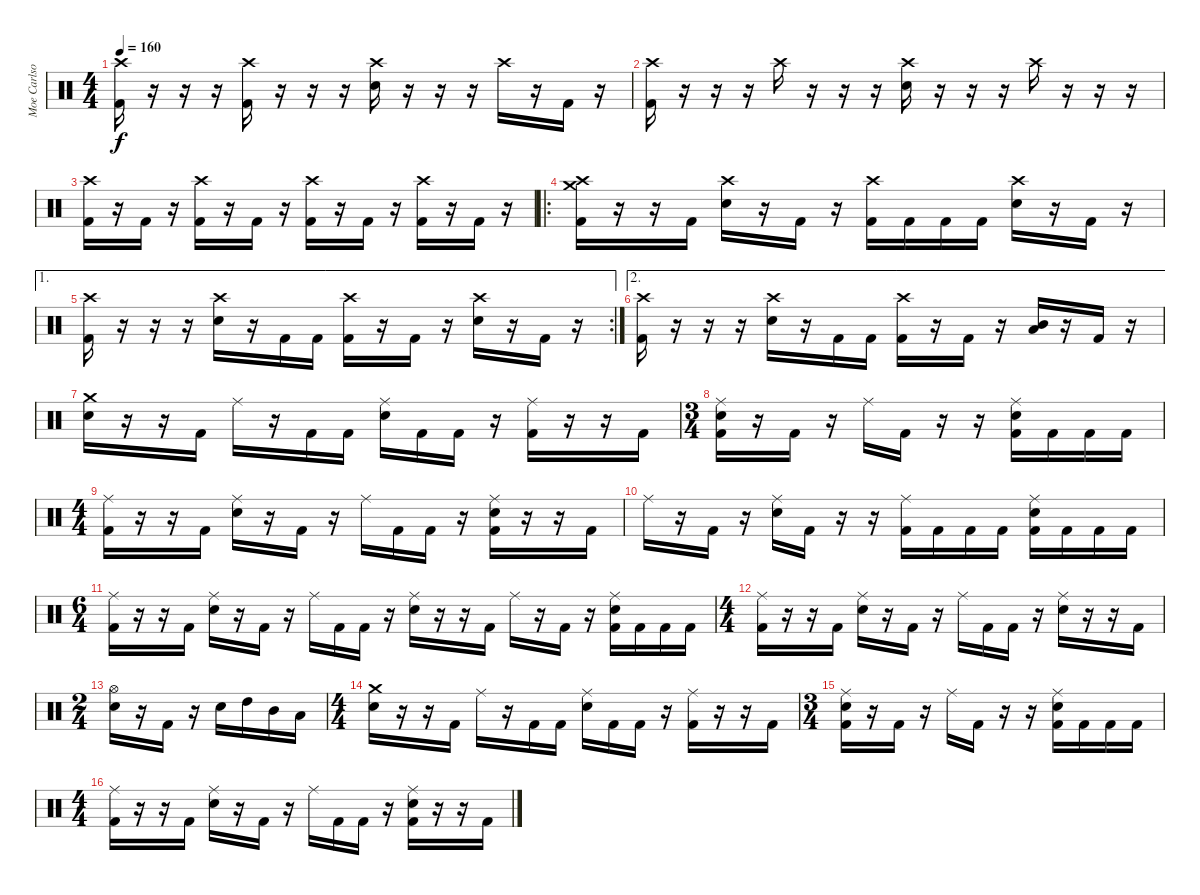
\track ("Moe Carlson" "Moe Carlso") {instrument percussion}
\staff {score}
\articulation defaults
\ts (4 4)
\tempo 160
\clef neutral
\ks c
("Crash high (hit)" "Kick (hit) 2").16{dy f} r.16 r.16 r.16 ("Crash high (hit)" "Kick (hit) 2").16 r.16 r.16 r.16 ("Crash high (hit)" "Electric Snare (hit)").16 r.16 r.16 r.16 "Crash high (hit)".16 r.16 "Kick (hit) 2".16 r.16 |
("Crash high (hit)" "Kick (hit) 2").16 r.16 r.16 r.16 "Crash high (hit)".16 r.16 r.16 r.16 ("Crash high (hit)" "Electric Snare (hit)").16 r.16 r.16 r.16 "Crash high (hit)".16 r.16 r.16 r.16 |
("Crash high (hit)" "Kick (hit) 2").16 r.16 "Kick (hit) 2".16 r.16 ("Crash high (hit)" "Kick (hit) 2").16 r.16 "Kick (hit) 2".16 r.16 ("Crash high (hit)" "Kick (hit) 2").16 r.16 "Kick (hit) 2".16 r.16 ("Crash high (hit)" "Kick (hit) 2").16 r.16 "Kick (hit) 2".16 r.16 |
\ro
("Crash high (hit)" "Crash medium (hit)" "Kick (hit) 2").16 r.16 r.16 "Kick (hit) 2".16 ("Crash high (hit)" "Electric Snare (hit)").16 r.16 "Kick (hit) 2".16 r.16 ("Crash high (hit)" "Kick (hit) 2").16 "Kick (hit) 2".16 "Kick (hit) 2".16 "Kick (hit) 2".16 ("Crash high (hit)" "Electric Snare (hit)").16 r.16 "Kick (hit) 2".16 r.16 |
\ae 1
\rc 2
("Crash high (hit)" "Kick (hit) 2").16 r.16 r.16 r.16 ("Crash high (hit)" "Electric Snare (hit)").16 r.16 "Kick (hit) 2".16 "Kick (hit) 2".16 ("Crash high (hit)" "Kick (hit) 2").16 r.16 "Kick (hit) 2".16 r.16 ("Crash high (hit)" "Electric Snare (hit)").16 r.16 "Kick (hit) 2".16 r.16 |
\ae 2
("Crash high (hit)" "Kick (hit) 2").16 r.16 r.16 r.16 ("Crash high (hit)" "Electric Snare (hit)").16 r.16 "Kick (hit) 2".16 "Kick (hit) 2".16 ("Crash high (hit)" "Kick (hit) 2").16 r.16 "Kick (hit) 2".16 r.16 ("Mid Tom (hit)" "Low Tom (hit)").16 r.16 "Kick (hit) 2".16 r.16 |
("Crash medium (hit)" "Electric Snare (hit)").16 r.16 r.16 "Kick (hit) 2".16 "Ride (middle)".16 r.16 "Kick (hit) 2".16 "Kick (hit) 2".16 ("Ride (middle)" "Electric Snare (hit)").16 "Kick (hit) 2".16 "Kick (hit) 2".16 r.16 ("Ride (middle)" "Kick (hit) 2").16 r.16 r.16 "Kick (hit) 2".16 |
\ts (3 4)
("Ride (middle)" "Electric Snare (hit)" "Kick (hit) 2").16 r.16 "Kick (hit) 2".16 r.16 "Ride (middle)".16 "Kick (hit) 2".16 r.16 r.16 ("Ride (middle)" "Electric Snare (hit)" "Kick (hit) 2").16 "Kick (hit) 2".16 "Kick (hit) 2".16 "Kick (hit) 2".16 |
\ts (4 4)
("Ride (middle)" "Kick (hit) 2").16 r.16 r.16 "Kick (hit) 2".16 ("Ride (middle)" "Electric Snare (hit)").16 r.16 "Kick (hit) 2".16 r.16 "Ride (middle)".16 "Kick (hit) 2".16 "Kick (hit) 2".16 r.16 ("Ride (middle)" "Electric Snare (hit)" "Kick (hit) 2").16 r.16 r.16 "Kick (hit) 2".16 |
"Ride (middle)".16 r.16 "Kick (hit) 2".16 r.16 ("Ride (middle)" "Electric Snare (hit)").16 "Kick (hit) 2".16 r.16 r.16 ("Ride (middle)" "Kick (hit) 2").16 "Kick (hit) 2".16 "Kick (hit) 2".16 "Kick (hit) 2".16 ("Ride (middle)" "Electric Snare (hit)" "Kick (hit) 2").16 "Kick (hit) 2".16 "Kick (hit) 2".16 "Kick (hit) 2".16 |
\ts (6 4)
("Ride (middle)" "Kick (hit) 2").16 r.16 r.16 "Kick (hit) 2".16 ("Ride (middle)" "Electric Snare (hit)").16 r.16 "Kick (hit) 2".16 r.16 "Ride (middle)".16 "Kick (hit) 2".16 "Kick (hit) 2".16 r.16 ("Ride (middle)" "Electric Snare (hit)").16 r.16 r.16 "Kick (hit) 2".16 "Ride (middle)".16 r.16 "Kick (hit) 2".16 r.16 ("Ride (middle)" "Electric Snare (hit)" "Kick (hit) 2").16 "Kick (hit) 2".16 "Kick (hit) 2".16 "Kick (hit) 2".16 |
\ts (4 4)
("Ride (middle)" "Kick (hit) 2").16 r.16 r.16 "Kick (hit) 2".16 ("Ride (middle)" "Electric Snare (hit)").16 r.16 "Kick (hit) 2".16 r.16 "Ride (middle)".16 "Kick (hit) 2".16 "Kick (hit) 2".16 r.16 ("Ride (middle)" "Electric Snare (hit)").16 r.16 r.16 "Kick (hit) 2".16 |
\ts (2 4)
("Hi-Hat (open)" "Electric Snare (hit)").16 r.16 "Kick (hit) 2".16 r.16 "Electric Snare (hit)".16 "High Tom (hit)".16 "Mid Tom (hit)".16 "Low Tom (hit)".16 |
\ts (4 4)
("Crash medium (hit)" "Electric Snare (hit)").16 r.16 r.16 "Kick (hit) 2".16 "Ride (middle)".16 r.16 "Kick (hit) 2".16 "Kick (hit) 2".16 ("Ride (middle)" "Electric Snare (hit)").16 "Kick (hit) 2".16 "Kick (hit) 2".16 r.16 ("Ride (middle)" "Kick (hit) 2").16 r.16 r.16 "Kick (hit) 2".16 |
\ts (3 4)
("Ride (middle)" "Electric Snare (hit)" "Kick (hit) 2").16 r.16 "Kick (hit) 2".16 r.16 "Ride (middle)".16 "Kick (hit) 2".16 r.16 r.16 ("Ride (middle)" "Electric Snare (hit)" "Kick (hit) 2").16 "Kick (hit) 2".16 "Kick (hit) 2".16 "Kick (hit) 2".16 |
\ts (4 4)
("Ride (middle)" "Kick (hit) 2").16 r.16 r.16 "Kick (hit) 2".16 ("Ride (middle)" "Electric Snare (hit)").16 r.16 "Kick (hit) 2".16 r.16 "Ride (middle)".16 "Kick (hit) 2".16 "Kick (hit) 2".16 r.16 ("Ride (middle)" "Electric Snare (hit)" "Kick (hit) 2").16 r.16 r.16 "Kick (hit) 2".16
